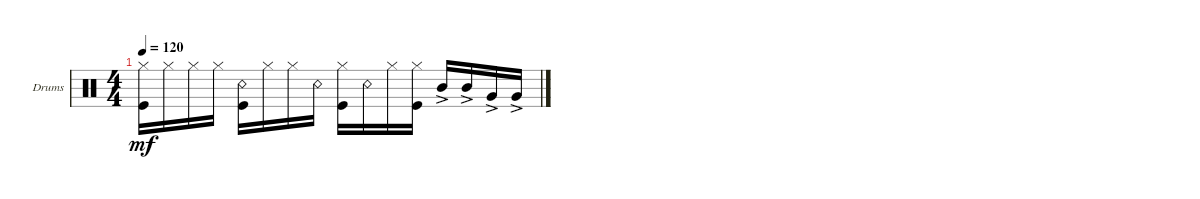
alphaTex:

\defaultSystemsLayout 4
\bracketExtendMode groupsimilarinstruments
\firstSystemTrackNameOrientation horizontal
\otherSystemsTrackNameOrientation horizontal
\track ("Alex" "Drums") {instrument percussion}
\staff {score}
\articulation defaults
\ts (4 4)
\tempo 120
\clef neutral
\ks c
("Kick (hit)" "Hi-Hat (closed)").16{dy mf} "Hi-Hat (closed)".16 "Hi-Hat (closed)".16 "Hi-Hat (closed)".16 ("Snare (rim shot)" "Kick (hit)").16 "Hi-Hat (closed)".16 "Hi-Hat (closed)".16 "Snare (rim shot)".16 ("Kick (hit)" "Hi-Hat (closed)").16 "Snare (rim shot)".16 "Hi-Hat (closed)".16 ("Kick (hit)" "Hi-Hat (closed)").16 "Mid Tom (hit)"{ac}.16 "Mid Tom (hit)"{ac}.16 "Very Low Tom (hit)"{ac}.16 "Very Low Tom (hit)"{ac}.16
